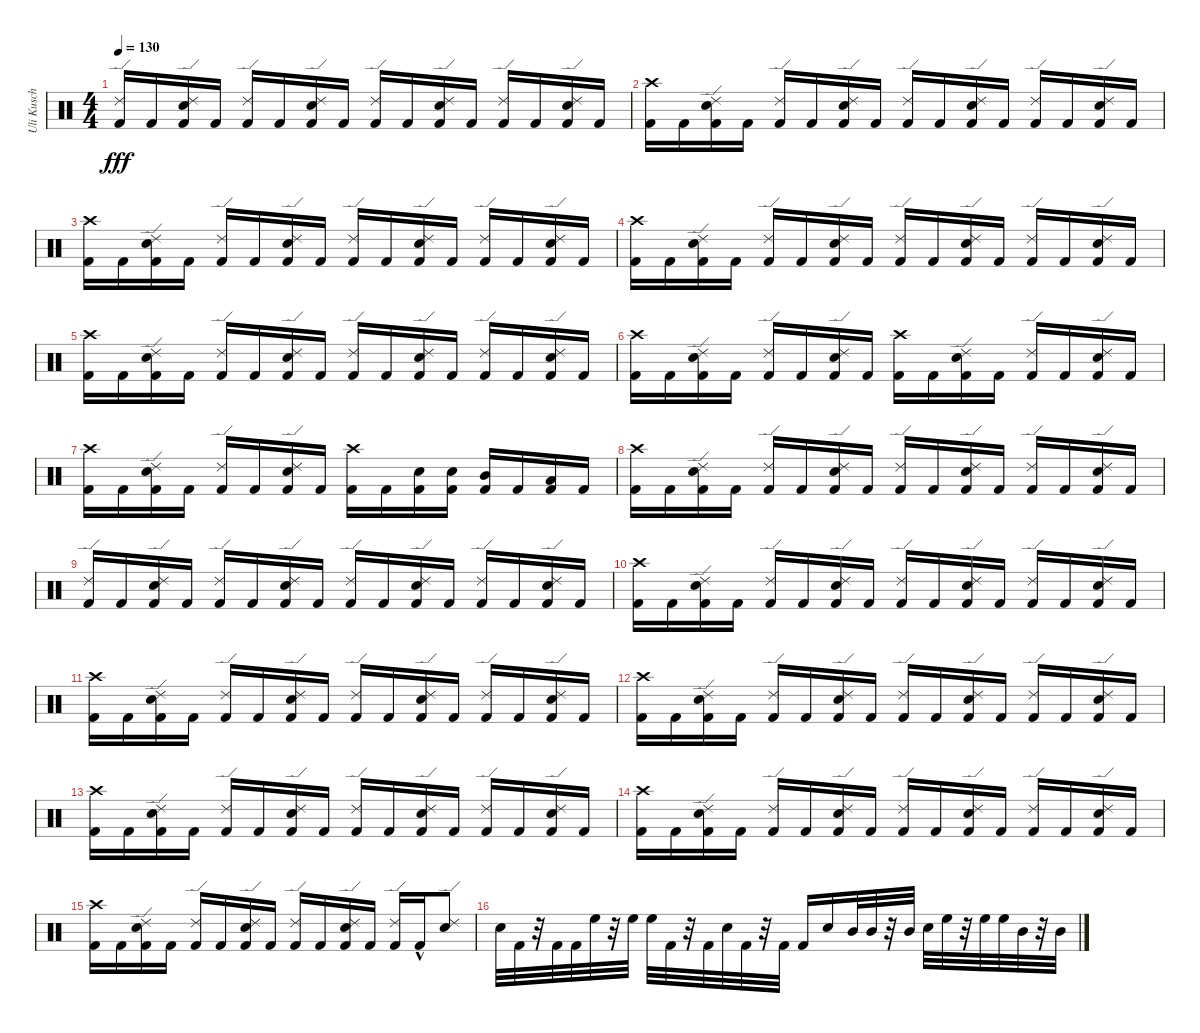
\track ("Uli Kusch" "Uli Kusch") {instrument percussion}
\staff {score}
\articulation defaults
\ts (4 4)
\tempo 130
\clef neutral
\ks c
("Kick (hit) 2" "Ride (edge) 2").16{dy fff} "Kick (hit) 2".16 ("Kick (hit) 2" "Electric Snare (hit)" "Ride (edge) 2").16 "Kick (hit) 2".16 ("Kick (hit) 2" "Ride (edge) 2").16 "Kick (hit) 2".16 ("Kick (hit) 2" "Electric Snare (hit)" "Ride (edge) 2").16 "Kick (hit) 2".16 ("Kick (hit) 2" "Ride (edge) 2").16 "Kick (hit) 2".16 ("Kick (hit) 2" "Electric Snare (hit)" "Ride (edge) 2").16 "Kick (hit) 2".16 ("Kick (hit) 2" "Ride (edge) 2").16 "Kick (hit) 2".16 ("Kick (hit) 2" "Electric Snare (hit)" "Ride (edge) 2").16 "Kick (hit) 2".16 |
("Kick (hit) 2" "Crash high (hit)").16 "Kick (hit) 2".16 ("Kick (hit) 2" "Electric Snare (hit)" "Ride (edge) 2").16 "Kick (hit) 2".16 ("Kick (hit) 2" "Ride (edge) 2").16 "Kick (hit) 2".16 ("Kick (hit) 2" "Electric Snare (hit)" "Ride (edge) 2").16 "Kick (hit) 2".16 ("Kick (hit) 2" "Ride (edge) 2").16 "Kick (hit) 2".16 ("Kick (hit) 2" "Electric Snare (hit)" "Ride (edge) 2").16 "Kick (hit) 2".16 ("Kick (hit) 2" "Ride (edge) 2").16 "Kick (hit) 2".16 ("Kick (hit) 2" "Electric Snare (hit)" "Ride (edge) 2").16 "Kick (hit) 2".16 |
("Kick (hit) 2" "Crash high (hit)").16 "Kick (hit) 2".16 ("Kick (hit) 2" "Electric Snare (hit)" "Ride (edge) 2").16 "Kick (hit) 2".16 ("Kick (hit) 2" "Ride (edge) 2").16 "Kick (hit) 2".16 ("Kick (hit) 2" "Electric Snare (hit)" "Ride (edge) 2").16 "Kick (hit) 2".16 ("Kick (hit) 2" "Ride (edge) 2").16 "Kick (hit) 2".16 ("Kick (hit) 2" "Electric Snare (hit)" "Ride (edge) 2").16 "Kick (hit) 2".16 ("Kick (hit) 2" "Ride (edge) 2").16 "Kick (hit) 2".16 ("Kick (hit) 2" "Electric Snare (hit)" "Ride (edge) 2").16 "Kick (hit) 2".16 |
("Kick (hit) 2" "Crash high (hit)").16 "Kick (hit) 2".16 ("Kick (hit) 2" "Electric Snare (hit)" "Ride (edge) 2").16 "Kick (hit) 2".16 ("Kick (hit) 2" "Ride (edge) 2").16 "Kick (hit) 2".16 ("Kick (hit) 2" "Electric Snare (hit)" "Ride (edge) 2").16 "Kick (hit) 2".16 ("Kick (hit) 2" "Ride (edge) 2").16 "Kick (hit) 2".16 ("Kick (hit) 2" "Electric Snare (hit)" "Ride (edge) 2").16 "Kick (hit) 2".16 ("Kick (hit) 2" "Ride (edge) 2").16 "Kick (hit) 2".16 ("Kick (hit) 2" "Electric Snare (hit)" "Ride (edge) 2").16 "Kick (hit) 2".16 |
("Kick (hit) 2" "Crash high (hit)").16 "Kick (hit) 2".16 ("Kick (hit) 2" "Electric Snare (hit)" "Ride (edge) 2").16 "Kick (hit) 2".16 ("Kick (hit) 2" "Ride (edge) 2").16 "Kick (hit) 2".16 ("Kick (hit) 2" "Electric Snare (hit)" "Ride (edge) 2").16 "Kick (hit) 2".16 ("Kick (hit) 2" "Ride (edge) 2").16 "Kick (hit) 2".16 ("Kick (hit) 2" "Electric Snare (hit)" "Ride (edge) 2").16 "Kick (hit) 2".16 ("Kick (hit) 2" "Ride (edge) 2").16 "Kick (hit) 2".16 ("Kick (hit) 2" "Electric Snare (hit)" "Ride (edge) 2").16 "Kick (hit) 2".16 |
("Kick (hit) 2" "Crash high (hit)").16 "Kick (hit) 2".16 ("Kick (hit) 2" "Electric Snare (hit)" "Ride (edge) 2").16 "Kick (hit) 2".16 ("Kick (hit) 2" "Ride (edge) 2").16 "Kick (hit) 2".16 ("Kick (hit) 2" "Electric Snare (hit)" "Ride (edge) 2").16 "Kick (hit) 2".16 ("Kick (hit) 2" "Crash high (hit)").16 "Kick (hit) 2".16 ("Kick (hit) 2" "Electric Snare (hit)" "Ride (edge) 2").16 "Kick (hit) 2".16 ("Kick (hit) 2" "Ride (edge) 2").16 "Kick (hit) 2".16 ("Kick (hit) 2" "Electric Snare (hit)" "Ride (edge) 2").16 "Kick (hit) 2".16 |
("Kick (hit) 2" "Crash high (hit)").16 "Kick (hit) 2".16 ("Kick (hit) 2" "Electric Snare (hit)" "Ride (edge) 2").16 "Kick (hit) 2".16 ("Kick (hit) 2" "Ride (edge) 2").16 "Kick (hit) 2".16 ("Kick (hit) 2" "Electric Snare (hit)" "Ride (edge) 2").16 "Kick (hit) 2".16 ("Kick (hit) 2" "Crash high (hit)").16 "Kick (hit) 2".16 ("Kick (hit) 2" "Electric Snare (hit)").16 ("Kick (hit) 2" "Electric Snare (hit)").16 ("Kick (hit) 2" "Mid Tom (hit)").16 "Kick (hit) 2".16 ("Kick (hit) 2" "Low Tom (hit)").16 "Kick (hit) 2".16 |
("Kick (hit) 2" "Crash high (hit)").16 "Kick (hit) 2".16 ("Kick (hit) 2" "Electric Snare (hit)" "Ride (edge) 2").16 "Kick (hit) 2".16 ("Kick (hit) 2" "Ride (edge) 2").16 "Kick (hit) 2".16 ("Kick (hit) 2" "Electric Snare (hit)" "Ride (edge) 2").16 "Kick (hit) 2".16 ("Kick (hit) 2" "Ride (edge) 2").16 "Kick (hit) 2".16 ("Kick (hit) 2" "Electric Snare (hit)" "Ride (edge) 2").16 "Kick (hit) 2".16 ("Kick (hit) 2" "Ride (edge) 2").16 "Kick (hit) 2".16 ("Kick (hit) 2" "Electric Snare (hit)" "Ride (edge) 2").16 "Kick (hit) 2".16 |
("Kick (hit) 2" "Ride (edge) 2").16 "Kick (hit) 2".16 ("Kick (hit) 2" "Electric Snare (hit)" "Ride (edge) 2").16 "Kick (hit) 2".16 ("Kick (hit) 2" "Ride (edge) 2").16 "Kick (hit) 2".16 ("Kick (hit) 2" "Electric Snare (hit)" "Ride (edge) 2").16 "Kick (hit) 2".16 ("Kick (hit) 2" "Ride (edge) 2").16 "Kick (hit) 2".16 ("Kick (hit) 2" "Electric Snare (hit)" "Ride (edge) 2").16 "Kick (hit) 2".16 ("Kick (hit) 2" "Ride (edge) 2").16 "Kick (hit) 2".16 ("Kick (hit) 2" "Electric Snare (hit)" "Ride (edge) 2").16 "Kick (hit) 2".16 |
("Kick (hit) 2" "Crash high (hit)").16 "Kick (hit) 2".16 ("Kick (hit) 2" "Electric Snare (hit)" "Ride (edge) 2").16 "Kick (hit) 2".16 ("Kick (hit) 2" "Ride (edge) 2").16 "Kick (hit) 2".16 ("Kick (hit) 2" "Electric Snare (hit)" "Ride (edge) 2").16 "Kick (hit) 2".16 ("Kick (hit) 2" "Ride (edge) 2").16 "Kick (hit) 2".16 ("Kick (hit) 2" "Electric Snare (hit)" "Ride (edge) 2").16 "Kick (hit) 2".16 ("Kick (hit) 2" "Ride (edge) 2").16 "Kick (hit) 2".16 ("Kick (hit) 2" "Electric Snare (hit)" "Ride (edge) 2").16 "Kick (hit) 2".16 |
("Kick (hit) 2" "Crash high (hit)").16 "Kick (hit) 2".16 ("Kick (hit) 2" "Electric Snare (hit)" "Ride (edge) 2").16 "Kick (hit) 2".16 ("Kick (hit) 2" "Ride (edge) 2").16 "Kick (hit) 2".16 ("Kick (hit) 2" "Electric Snare (hit)" "Ride (edge) 2").16 "Kick (hit) 2".16 ("Kick (hit) 2" "Ride (edge) 2").16 "Kick (hit) 2".16 ("Kick (hit) 2" "Electric Snare (hit)" "Ride (edge) 2").16 "Kick (hit) 2".16 ("Kick (hit) 2" "Ride (edge) 2").16 "Kick (hit) 2".16 ("Kick (hit) 2" "Electric Snare (hit)" "Ride (edge) 2").16 "Kick (hit) 2".16 |
("Kick (hit) 2" "Crash high (hit)").16 "Kick (hit) 2".16 ("Kick (hit) 2" "Electric Snare (hit)" "Ride (edge) 2").16 "Kick (hit) 2".16 ("Kick (hit) 2" "Ride (edge) 2").16 "Kick (hit) 2".16 ("Kick (hit) 2" "Electric Snare (hit)" "Ride (edge) 2").16 "Kick (hit) 2".16 ("Kick (hit) 2" "Ride (edge) 2").16 "Kick (hit) 2".16 ("Kick (hit) 2" "Electric Snare (hit)" "Ride (edge) 2").16 "Kick (hit) 2".16 ("Kick (hit) 2" "Ride (edge) 2").16 "Kick (hit) 2".16 ("Kick (hit) 2" "Electric Snare (hit)" "Ride (edge) 2").16 "Kick (hit) 2".16 |
("Kick (hit) 2" "Crash high (hit)").16 "Kick (hit) 2".16 ("Kick (hit) 2" "Electric Snare (hit)" "Ride (edge) 2").16 "Kick (hit) 2".16 ("Kick (hit) 2" "Ride (edge) 2").16 "Kick (hit) 2".16 ("Kick (hit) 2" "Electric Snare (hit)" "Ride (edge) 2").16 "Kick (hit) 2".16 ("Kick (hit) 2" "Ride (edge) 2").16 "Kick (hit) 2".16 ("Kick (hit) 2" "Electric Snare (hit)" "Ride (edge) 2").16 "Kick (hit) 2".16 ("Kick (hit) 2" "Ride (edge) 2").16 "Kick (hit) 2".16 ("Kick (hit) 2" "Electric Snare (hit)" "Ride (edge) 2").16 "Kick (hit) 2".16 |
("Kick (hit) 2" "Crash high (hit)").16 "Kick (hit) 2".16 ("Kick (hit) 2" "Electric Snare (hit)" "Ride (edge) 2").16 "Kick (hit) 2".16 ("Kick (hit) 2" "Ride (edge) 2").16 "Kick (hit) 2".16 ("Kick (hit) 2" "Electric Snare (hit)" "Ride (edge) 2").16 "Kick (hit) 2".16 ("Kick (hit) 2" "Ride (edge) 2").16 "Kick (hit) 2".16 ("Kick (hit) 2" "Electric Snare (hit)" "Ride (edge) 2").16 "Kick (hit) 2".16 ("Kick (hit) 2" "Ride (edge) 2").16 "Kick (hit) 2".16 ("Kick (hit) 2" "Electric Snare (hit)" "Ride (edge) 2").16 "Kick (hit) 2".16 |
("Kick (hit) 2" "Crash high (hit)").16 "Kick (hit) 2".16 ("Kick (hit) 2" "Electric Snare (hit)" "Ride (edge) 2").16 "Kick (hit) 2".16 ("Kick (hit) 2" "Ride (edge) 2").16 "Kick (hit) 2".16 ("Kick (hit) 2" "Electric Snare (hit)" "Ride (edge) 2").16 "Kick (hit) 2".16 ("Kick (hit) 2" "Ride (edge) 2").16 "Kick (hit) 2".16 ("Kick (hit) 2" "Electric Snare (hit)" "Ride (edge) 2").16 "Kick (hit) 2".16 ("Kick (hit) 2" "Ride (edge) 2").16 "Kick (hit) 2"{hac}.16 ("Electric Snare (hit)" "Ride (edge) 2").8 |
"Electric Snare (hit)".32 "Kick (hit) 2".32 r.32 "Kick (hit) 2".32 "Kick (hit) 2".32 "High Floor Tom (hit)".32 r.32 "High Floor Tom (hit)".32 "High Floor Tom (hit)".32 "Kick (hit) 2".32 r.32 "Kick (hit) 2".32 "Electric Snare (hit)".32 "Kick (hit) 2".32 r.32 "Kick (hit) 2".32 "Kick (hit) 2".16 "Electric Snare (hit)".16 "Mid Tom (hit)".32 "Mid Tom (hit)".32 r.32 "Mid Tom (hit)".32 "Electric Snare (hit)".32 "High Floor Tom (hit)".32 r.32 "High Floor Tom (hit)".32 "High Floor Tom (hit)".32 "Mid Tom (hit)".32 r.32 "Mid Tom (hit)".32
